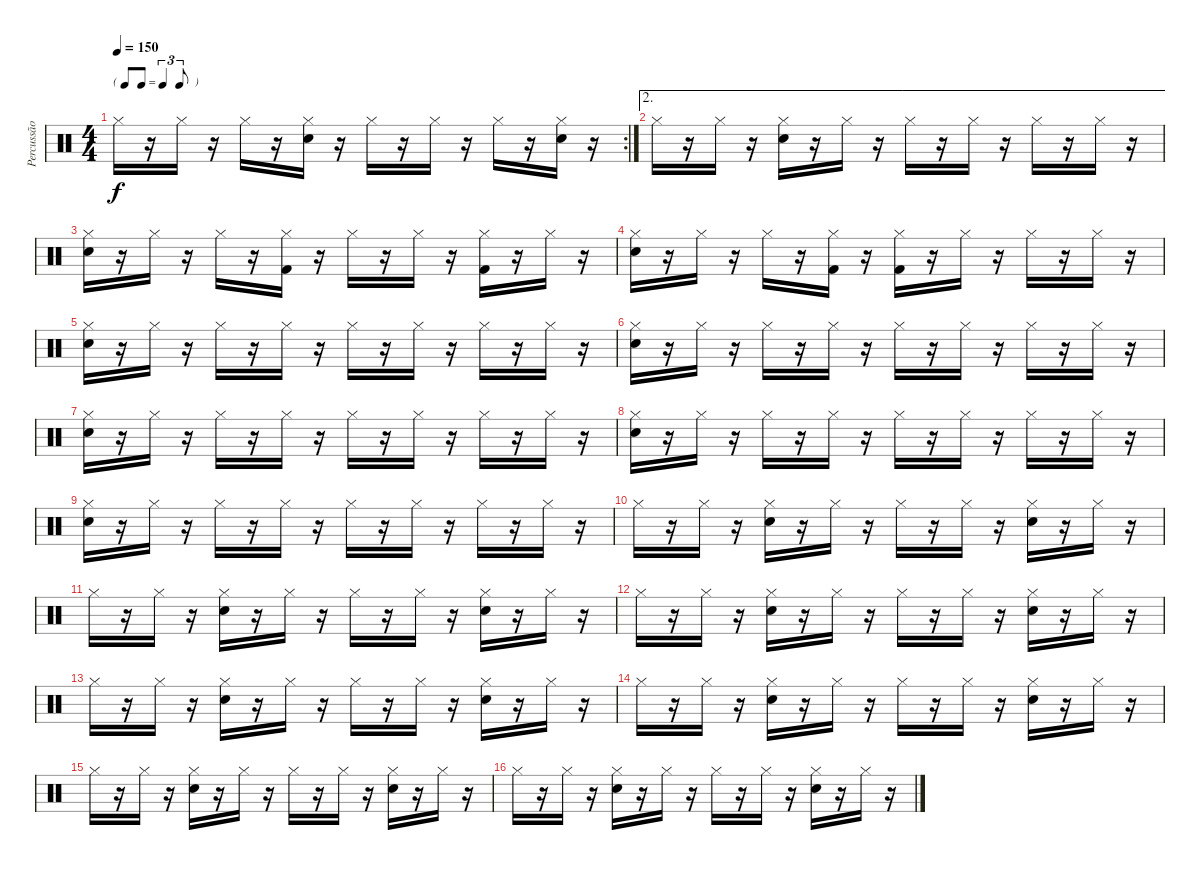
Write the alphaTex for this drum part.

\track ("Percussão" "Percussão") {instrument percussion}
\staff {score}
\articulation defaults
\rc 2
\ts (4 4)
\tf triplet8th
\tempo 150
\clef neutral
\ks c "Hi-Hat (closed)".16{dy f}
r.16 "Hi-Hat (closed)".16 r.16 "Hi-Hat (closed)".16 r.16 ("Hi-Hat (closed)" "Snare (hit) 2").16 r.16 "Hi-Hat (closed)".16 r.16 "Hi-Hat (closed)".16 r.16 "Hi-Hat (closed)".16 r.16 ("Hi-Hat (closed)" "Snare (hit) 2").16 r.16 |
\ae 2 "Hi-Hat (closed)".16
r.16 "Hi-Hat (closed)".16 r.16 ("Hi-Hat (closed)" "Snare (hit) 2").16 r.16 "Hi-Hat (closed)".16 r.16 "Hi-Hat (closed)".16 r.16 "Hi-Hat (closed)".16 r.16 "Hi-Hat (closed)".16 r.16 "Hi-Hat (closed)".16 r.16 |
("Hi-Hat (closed)" "Snare (hit) 2").16 r.16 "Hi-Hat (closed)".16 r.16 "Hi-Hat (closed)".16 r.16 ("Hi-Hat (closed)" "Kick (hit) 2").16 r.16 "Hi-Hat (closed)".16 r.16 "Hi-Hat (closed)".16 r.16 ("Hi-Hat (closed)" "Kick (hit) 2").16 r.16 "Hi-Hat (closed)".16 r.16 |
("Hi-Hat (closed)" "Snare (hit) 2").16 r.16 "Hi-Hat (closed)".16 r.16 "Hi-Hat (closed)".16 r.16 ("Hi-Hat (closed)" "Kick (hit) 2").16 r.16 ("Hi-Hat (closed)" "Kick (hit) 2").16 r.16 "Hi-Hat (closed)".16 r.16 "Hi-Hat (closed)".16 r.16 "Hi-Hat (closed)".16 r.16 |
("Hi-Hat (closed)" "Snare (hit) 2").16 r.16 "Hi-Hat (closed)".16 r.16 "Hi-Hat (closed)".16 r.16 "Hi-Hat (closed)".16 r.16 "Hi-Hat (closed)".16 r.16 "Hi-Hat (closed)".16 r.16 "Hi-Hat (closed)".16 r.16 "Hi-Hat (closed)".16 r.16 |
("Hi-Hat (closed)" "Snare (hit) 2").16 r.16 "Hi-Hat (closed)".16 r.16 "Hi-Hat (closed)".16 r.16 "Hi-Hat (closed)".16 r.16 "Hi-Hat (closed)".16 r.16 "Hi-Hat (closed)".16 r.16 "Hi-Hat (closed)".16 r.16 "Hi-Hat (closed)".16 r.16 |
("Hi-Hat (closed)" "Snare (hit) 2").16 r.16 "Hi-Hat (closed)".16 r.16 "Hi-Hat (closed)".16 r.16 "Hi-Hat (closed)".16 r.16 "Hi-Hat (closed)".16 r.16 "Hi-Hat (closed)".16 r.16 "Hi-Hat (closed)".16 r.16 "Hi-Hat (closed)".16 r.16 |
("Hi-Hat (closed)" "Snare (hit) 2").16 r.16 "Hi-Hat (closed)".16 r.16 "Hi-Hat (closed)".16 r.16 "Hi-Hat (closed)".16 r.16 "Hi-Hat (closed)".16 r.16 "Hi-Hat (closed)".16 r.16 "Hi-Hat (closed)".16 r.16 "Hi-Hat (closed)".16 r.16 |
("Hi-Hat (closed)" "Snare (hit) 2").16 r.16 "Hi-Hat (closed)".16 r.16 "Hi-Hat (closed)".16 r.16 "Hi-Hat (closed)".16 r.16 "Hi-Hat (closed)".16 r.16 "Hi-Hat (closed)".16 r.16 "Hi-Hat (closed)".16 r.16 "Hi-Hat (closed)".16 r.16 |
"Hi-Hat (closed)".16 r.16 "Hi-Hat (closed)".16 r.16 ("Hi-Hat (closed)" "Snare (hit) 2").16 r.16 "Hi-Hat (closed)".16 r.16 "Hi-Hat (closed)".16 r.16 "Hi-Hat (closed)".16 r.16 ("Hi-Hat (closed)" "Snare (hit) 2").16 r.16 "Hi-Hat (closed)".16 r.16 |
"Hi-Hat (closed)".16 r.16 "Hi-Hat (closed)".16 r.16 ("Hi-Hat (closed)" "Snare (hit) 2").16 r.16 "Hi-Hat (closed)".16 r.16 "Hi-Hat (closed)".16 r.16 "Hi-Hat (closed)".16 r.16 ("Hi-Hat (closed)" "Snare (hit) 2").16 r.16 "Hi-Hat (closed)".16 r.16 |
"Hi-Hat (closed)".16 r.16 "Hi-Hat (closed)".16 r.16 ("Hi-Hat (closed)" "Snare (hit) 2").16 r.16 "Hi-Hat (closed)".16 r.16 "Hi-Hat (closed)".16 r.16 "Hi-Hat (closed)".16 r.16 ("Hi-Hat (closed)" "Snare (hit) 2").16 r.16 "Hi-Hat (closed)".16 r.16 |
"Hi-Hat (closed)".16 r.16 "Hi-Hat (closed)".16 r.16 ("Hi-Hat (closed)" "Snare (hit) 2").16 r.16 "Hi-Hat (closed)".16 r.16 "Hi-Hat (closed)".16 r.16 "Hi-Hat (closed)".16 r.16 ("Hi-Hat (closed)" "Snare (hit) 2").16 r.16 "Hi-Hat (closed)".16 r.16 |
"Hi-Hat (closed)".16 r.16 "Hi-Hat (closed)".16 r.16 ("Hi-Hat (closed)" "Snare (hit) 2").16 r.16 "Hi-Hat (closed)".16 r.16 "Hi-Hat (closed)".16 r.16 "Hi-Hat (closed)".16 r.16 ("Hi-Hat (closed)" "Snare (hit) 2").16 r.16 "Hi-Hat (closed)".16 r.16 |
"Hi-Hat (closed)".16 r.16 "Hi-Hat (closed)".16 r.16 ("Hi-Hat (closed)" "Snare (hit) 2").16 r.16 "Hi-Hat (closed)".16 r.16 "Hi-Hat (closed)".16 r.16 "Hi-Hat (closed)".16 r.16 ("Hi-Hat (closed)" "Snare (hit) 2").16 r.16 "Hi-Hat (closed)".16 r.16 |
"Hi-Hat (closed)".16 r.16 "Hi-Hat (closed)".16 r.16 ("Hi-Hat (closed)" "Snare (hit) 2").16 r.16 "Hi-Hat (closed)".16 r.16 "Hi-Hat (closed)".16 r.16 "Hi-Hat (closed)".16 r.16 ("Hi-Hat (closed)" "Snare (hit) 2").16 r.16 "Hi-Hat (closed)".16 r.16
